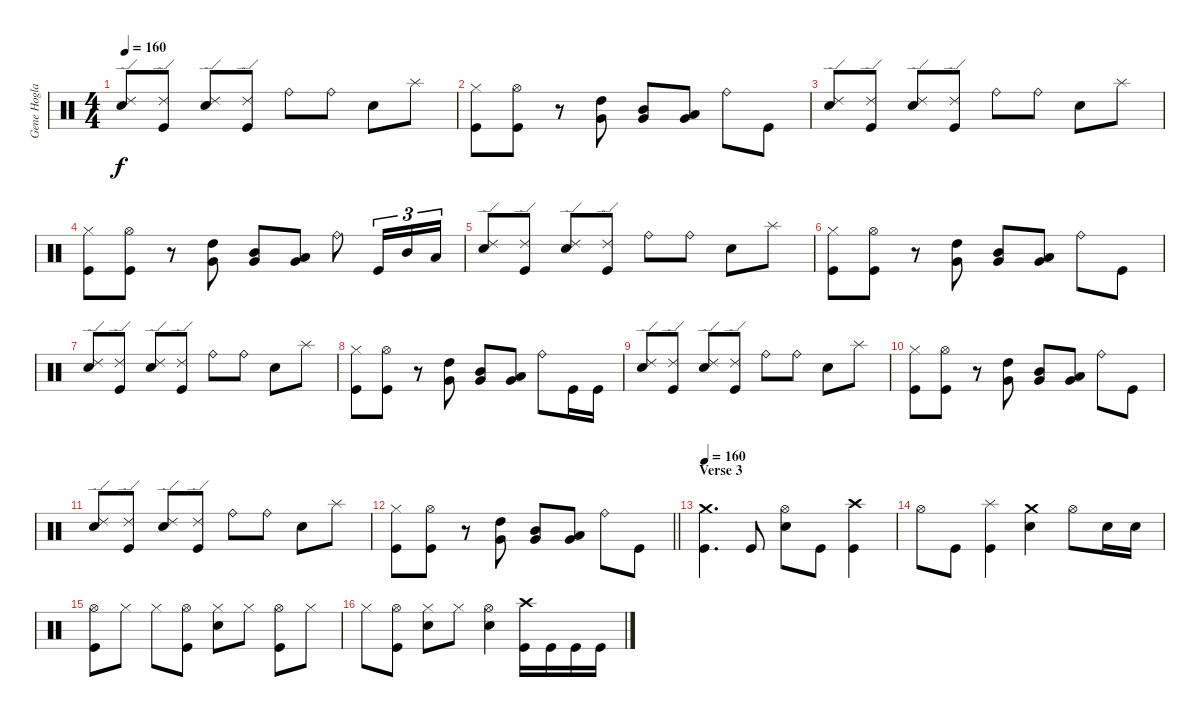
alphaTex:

\track ("Gene Hoglan" "Gene Hogla") {instrument percussion}
\staff {score}
\articulation defaults
\ts (4 4)
\tempo 160
\clef neutral
\ks c
("Ride (edge) 2" "Electric Snare (hit)").8{dy f} ("Ride (edge) 2" "Kick (hit)").8 ("Ride (edge) 2" "Electric Snare (hit)").8 ("Ride (edge) 2" "Kick (hit)").8 "Ride (bell)".8 "Ride (bell)".8 "Electric Snare (hit)".8 "Splash (hit)".8 |
("Hi-Hat (closed)" "Kick (hit)").8 ("Hi-Hat (open)" "Kick (hit)").8 r.8 ("High Tom (hit)" "Very Low Tom (hit)").8 ("Mid Tom (hit)" "Very Low Tom (hit)").8 ("Low Tom (hit)" "Very Low Tom (hit)").8 "Ride (bell)".8 "Kick (hit)".8 |
("Ride (edge) 2" "Electric Snare (hit)").8 ("Ride (edge) 2" "Kick (hit)").8 ("Ride (edge) 2" "Electric Snare (hit)").8 ("Ride (edge) 2" "Kick (hit)").8 "Ride (bell)".8 "Ride (bell)".8 "Electric Snare (hit)".8 "Splash (hit)".8 |
("Hi-Hat (closed)" "Kick (hit)").8 ("Hi-Hat (open)" "Kick (hit)").8 r.8 ("High Tom (hit)" "Very Low Tom (hit)").8 ("Mid Tom (hit)" "Very Low Tom (hit)").8 ("Low Tom (hit)" "Very Low Tom (hit)").8 "Ride (bell)".8 "Kick (hit)".16{tu (3 2)} "Mid Tom (hit)".16{tu (3 2)} "Low Tom (hit)".16{tu (3 2)} |
("Ride (edge) 2" "Electric Snare (hit)").8 ("Ride (edge) 2" "Kick (hit)").8 ("Ride (edge) 2" "Electric Snare (hit)").8 ("Ride (edge) 2" "Kick (hit)").8 "Ride (bell)".8 "Ride (bell)".8 "Electric Snare (hit)".8 "Splash (hit)".8 |
("Hi-Hat (closed)" "Kick (hit)").8 ("Hi-Hat (open)" "Kick (hit)").8 r.8 ("High Tom (hit)" "Very Low Tom (hit)").8 ("Mid Tom (hit)" "Very Low Tom (hit)").8 ("Low Tom (hit)" "Very Low Tom (hit)").8 "Ride (bell)".8 "Kick (hit)".8 |
("Ride (edge) 2" "Electric Snare (hit)").8 ("Ride (edge) 2" "Kick (hit)").8 ("Ride (edge) 2" "Electric Snare (hit)").8 ("Ride (edge) 2" "Kick (hit)").8 "Ride (bell)".8 "Ride (bell)".8 "Electric Snare (hit)".8 "Splash (hit)".8 |
("Hi-Hat (closed)" "Kick (hit)").8 ("Hi-Hat (open)" "Kick (hit)").8 r.8 ("High Tom (hit)" "Very Low Tom (hit)").8 ("Mid Tom (hit)" "Very Low Tom (hit)").8 ("Low Tom (hit)" "Very Low Tom (hit)").8 "Ride (bell)".8 "Kick (hit)".16 "Kick (hit)".16 |
("Ride (edge) 2" "Electric Snare (hit)").8 ("Ride (edge) 2" "Kick (hit)").8 ("Ride (edge) 2" "Electric Snare (hit)").8 ("Ride (edge) 2" "Kick (hit)").8 "Ride (bell)".8 "Ride (bell)".8 "Electric Snare (hit)".8 "Splash (hit)".8 |
("Hi-Hat (closed)" "Kick (hit)").8 ("Hi-Hat (open)" "Kick (hit)").8 r.8 ("High Tom (hit)" "Very Low Tom (hit)").8 ("Mid Tom (hit)" "Very Low Tom (hit)").8 ("Low Tom (hit)" "Very Low Tom (hit)").8 "Ride (bell)".8 "Kick (hit)".8 |
("Ride (edge) 2" "Electric Snare (hit)").8 ("Ride (edge) 2" "Kick (hit)").8 ("Ride (edge) 2" "Electric Snare (hit)").8 ("Ride (edge) 2" "Kick (hit)").8 "Ride (bell)".8 "Ride (bell)".8 "Electric Snare (hit)".8 "Splash (hit)".8 |
\barLineRight lightlight
("Hi-Hat (closed)" "Kick (hit)").8 ("Hi-Hat (open)" "Kick (hit)").8 r.8 ("High Tom (hit)" "Very Low Tom (hit)").8 ("Mid Tom (hit)" "Very Low Tom (hit)").8 ("Low Tom (hit)" "Very Low Tom (hit)").8 "Ride (bell)".8 "Kick (hit)".8 |
\section ("" "Verse 3")
\tempo 160
("Crash medium (hit)" "Kick (hit)").4{d} "Kick (hit)".8 ("Hi-Hat (open)" "Electric Snare (hit)").8 "Kick (hit)".8 ("Crash high (hit)" "Kick (hit)").4 |
"Hi-Hat (open)".8 "Kick (hit)".8 ("Splash (hit)" "Kick (hit)").4 ("Crash medium (hit)" "Electric Snare (hit)").4 "Hi-Hat (open)".8 "Electric Snare (hit)".16 "Electric Snare (hit)".16 |
("Hi-Hat (open)" "Kick (hit)").8 "Hi-Hat (closed)".8 "Hi-Hat (closed)".8 ("Hi-Hat (open)" "Kick (hit)").8 ("Hi-Hat (closed)" "Electric Snare (hit)").8 "Hi-Hat (closed)".8 ("Hi-Hat (open)" "Kick (hit)").8 "Hi-Hat (closed)".8 |
"Hi-Hat (closed)".8 ("Hi-Hat (open)" "Kick (hit)").8 ("Hi-Hat (closed)" "Electric Snare (hit)").8 "Hi-Hat (closed)".8 ("Hi-Hat (open)" "Electric Snare (hit)").4 ("Crash high (hit)" "Kick (hit)").16 "Kick (hit)".16 "Kick (hit)".16 "Kick (hit)".16
